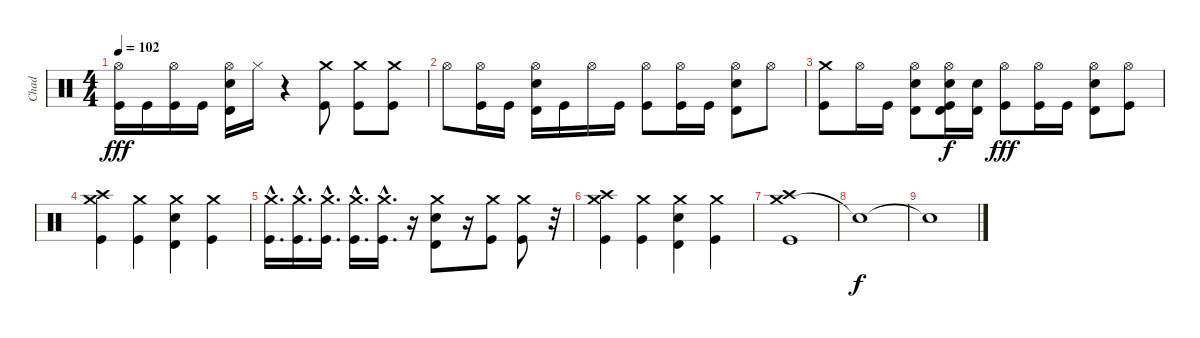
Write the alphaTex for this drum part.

\track ("Chad" "Chad") {instrument percussion}
\staff {score}
\articulation defaults
\ts (4 4)
\tempo 102
\clef neutral
\ks c
("Hi-Hat (open)" "Kick (hit)").16{dy fff} "Kick (hit)".16 ("Hi-Hat (open)" "Kick (hit)").16 "Kick (hit)".16 ("Hi-Hat (open)" "Electric Snare (hit)" "Timbale high (hit)").16 "Hi-Hat (closed)".16 r.4 ("Crash medium (hit)" "Kick (hit)").8 ("Crash medium (hit)" "Kick (hit)").8 ("Crash medium (hit)" "Kick (hit)").8 |
"Hi-Hat (open)".8 ("Hi-Hat (open)" "Kick (hit)").16 "Kick (hit)".16 ("Hi-Hat (open)" "Electric Snare (hit)" "Timbale high (hit)").16 "Kick (hit)".16 "Hi-Hat (open)".16 "Kick (hit)".16 ("Hi-Hat (open)" "Kick (hit)").8 ("Hi-Hat (open)" "Kick (hit)").16 "Kick (hit)".16 ("Hi-Hat (open)" "Electric Snare (hit)" "Timbale high (hit)").8 "Hi-Hat (open)".8 |
("Crash medium (hit)" "Kick (hit)").8 "Hi-Hat (open)".16 "Kick (hit)".16 ("Hi-Hat (open)" "Electric Snare (hit)" "Timbale high (hit)").8 ("Hi-Hat (open)" "Electric Snare (hit)" "Timbale high (hit)" "Kick (hit)").16{dy f} ("Electric Snare (hit)" "Timbale high (hit)").16 ("Hi-Hat (open)" "Kick (hit)").8{dy fff} ("Hi-Hat (open)" "Kick (hit)").16 "Kick (hit)".16 ("Hi-Hat (open)" "Electric Snare (hit)" "Timbale high (hit)").8 ("Hi-Hat (open)" "Kick (hit)").8 |
("Crash medium (hit)" "Crash high (hit)" "Kick (hit)").4 ("Crash medium (hit)" "Kick (hit)").4 ("Crash medium (hit)" "Electric Snare (hit)" "Timbale high (hit)").4 ("Crash medium (hit)" "Kick (hit)").4 |
("Crash medium (hit)"{hac} "Kick (hit)"{hac}).16{d} ("Crash medium (hit)"{hac} "Kick (hit)"{hac}).16{d} ("Crash medium (hit)"{hac} "Kick (hit)"{hac}).16{d} ("Crash medium (hit)"{hac} "Kick (hit)"{hac}).16{d} ("Crash medium (hit)"{hac} "Kick (hit)"{hac}).16{d} r.16 ("Crash medium (hit)" "Electric Snare (hit)" "Timbale high (hit)").8 r.16 ("Crash medium (hit)" "Kick (hit)").8 ("Crash medium (hit)" "Kick (hit)").8 r.32 |
("Crash medium (hit)" "Crash high (hit)" "Kick (hit)").4 ("Crash medium (hit)" "Kick (hit)").4 ("Crash medium (hit)" "Electric Snare (hit)" "Timbale high (hit)").4 ("Crash medium (hit)" "Kick (hit)").4 |
("Crash medium (hit)" "Crash high (hit)" "Kick (hit)").1{volume 8} |
"Snare (hit)"{t}.1{dy f volume 5} |
"Snare (hit)"{t}.1{volume 0}
